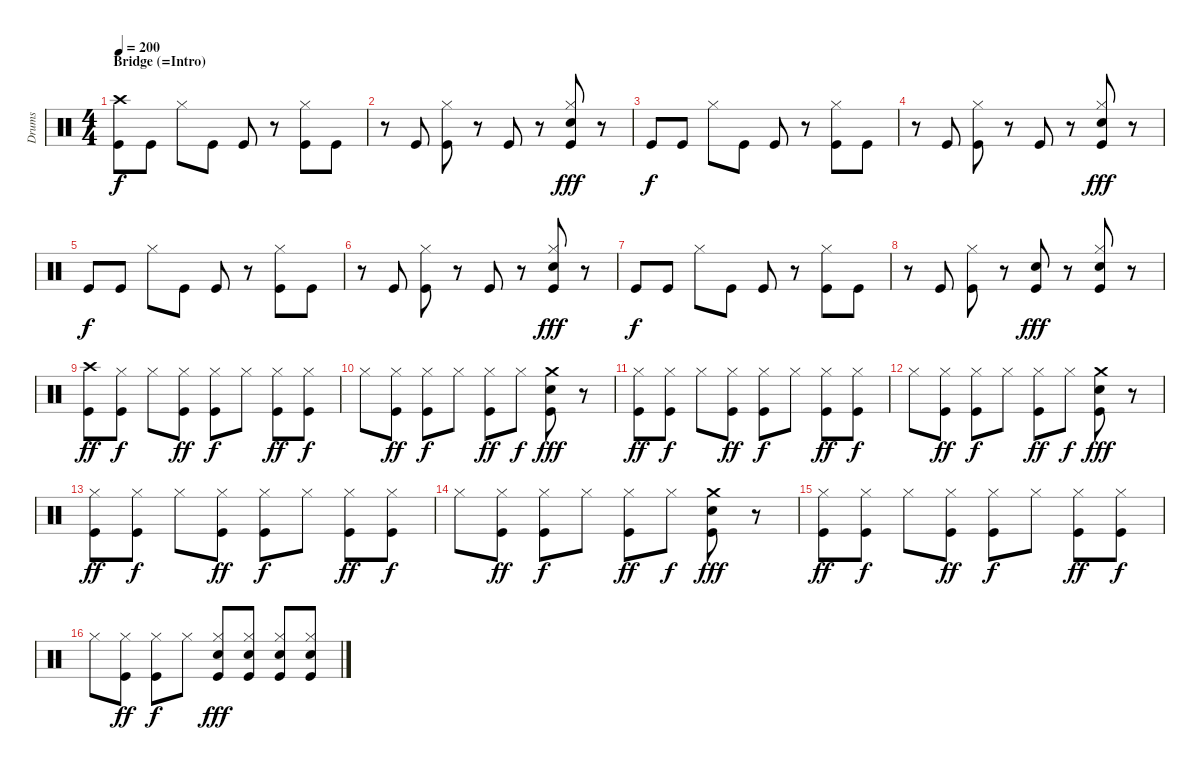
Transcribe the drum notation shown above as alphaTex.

\track ("Drums" "Drums") {instrument percussion}
\staff {score}
\articulation defaults
\ts (4 4)
\section ("" "Bridge (=Intro)")
\tempo 200
\clef neutral
\ks c
("Crash high (hit)" "Kick (hit)").8{dy f} "Kick (hit)".8 "Hi-Hat (closed)".8 "Kick (hit)".8 "Kick (hit)".8 r.8 ("Hi-Hat (closed)" "Kick (hit)").8 "Kick (hit)".8 |
r.8 "Kick (hit)".8 ("Hi-Hat (closed)" "Kick (hit)").8 r.8 "Kick (hit)".8 r.8 ("Hi-Hat (closed)" "Hand Clap (hit)" "Kick (hit)").8{dy fff} r.8 |
"Kick (hit)".8{dy f} "Kick (hit)".8 "Hi-Hat (closed)".8 "Kick (hit)".8 "Kick (hit)".8 r.8 ("Hi-Hat (closed)" "Kick (hit)").8 "Kick (hit)".8 |
r.8 "Kick (hit)".8 ("Hi-Hat (closed)" "Kick (hit)").8 r.8 "Kick (hit)".8 r.8 ("Hi-Hat (closed)" "Hand Clap (hit)" "Kick (hit)").8{dy fff} r.8 |
"Kick (hit)".8{dy f} "Kick (hit)".8 "Hi-Hat (closed)".8 "Kick (hit)".8 "Kick (hit)".8 r.8 ("Hi-Hat (closed)" "Kick (hit)").8 "Kick (hit)".8 |
r.8 "Kick (hit)".8 ("Hi-Hat (closed)" "Kick (hit)").8 r.8 "Kick (hit)".8 r.8 ("Hi-Hat (closed)" "Hand Clap (hit)" "Kick (hit)").8{dy fff} r.8 |
"Kick (hit)".8{dy f} "Kick (hit)".8 "Hi-Hat (closed)".8 "Kick (hit)".8 "Kick (hit)".8 r.8 ("Hi-Hat (closed)" "Kick (hit)").8 "Kick (hit)".8 |
r.8 "Kick (hit)".8 ("Hi-Hat (closed)" "Kick (hit)").8 r.8 ("Hand Clap (hit)" "Kick (hit)").8{dy fff} r.8 ("Hi-Hat (closed)" "Hand Clap (hit)" "Kick (hit)").8 r.8 |
("Crash high (hit)" "Kick (hit)").8{dy ff} ("Hi-Hat (closed)" "Kick (hit)").8{dy f} "Hi-Hat (closed)".8 ("Hi-Hat (closed)" "Kick (hit)").8{dy ff} ("Hi-Hat (closed)" "Kick (hit)").8{dy f} "Hi-Hat (closed)".8 ("Hi-Hat (closed)" "Kick (hit)").8{dy ff} ("Hi-Hat (closed)" "Kick (hit)").8{dy f} |
"Hi-Hat (closed)".8 ("Hi-Hat (closed)" "Kick (hit)").8{dy ff} ("Hi-Hat (closed)" "Kick (hit)").8{dy f} "Hi-Hat (closed)".8 ("Hi-Hat (closed)" "Kick (hit)").8{dy ff} "Hi-Hat (closed)".8{dy f} ("Crash medium (hit)" "Hand Clap (hit)" "Kick (hit)").8{dy fff} r.8 |
("Hi-Hat (closed)" "Kick (hit)").8{dy ff} ("Hi-Hat (closed)" "Kick (hit)").8{dy f} "Hi-Hat (closed)".8 ("Hi-Hat (closed)" "Kick (hit)").8{dy ff} ("Hi-Hat (closed)" "Kick (hit)").8{dy f} "Hi-Hat (closed)".8 ("Hi-Hat (closed)" "Kick (hit)").8{dy ff} ("Hi-Hat (closed)" "Kick (hit)").8{dy f} |
"Hi-Hat (closed)".8 ("Hi-Hat (closed)" "Kick (hit)").8{dy ff} ("Hi-Hat (closed)" "Kick (hit)").8{dy f} "Hi-Hat (closed)".8 ("Hi-Hat (closed)" "Kick (hit)").8{dy ff} "Hi-Hat (closed)".8{dy f} ("Crash medium (hit)" "Hand Clap (hit)" "Kick (hit)").8{dy fff} r.8 |
("Hi-Hat (closed)" "Kick (hit)").8{dy ff} ("Hi-Hat (closed)" "Kick (hit)").8{dy f} "Hi-Hat (closed)".8 ("Hi-Hat (closed)" "Kick (hit)").8{dy ff} ("Hi-Hat (closed)" "Kick (hit)").8{dy f} "Hi-Hat (closed)".8 ("Hi-Hat (closed)" "Kick (hit)").8{dy ff} ("Hi-Hat (closed)" "Kick (hit)").8{dy f} |
"Hi-Hat (closed)".8 ("Hi-Hat (closed)" "Kick (hit)").8{dy ff} ("Hi-Hat (closed)" "Kick (hit)").8{dy f} "Hi-Hat (closed)".8 ("Hi-Hat (closed)" "Kick (hit)").8{dy ff} "Hi-Hat (closed)".8{dy f} ("Crash medium (hit)" "Hand Clap (hit)" "Kick (hit)").8{dy fff} r.8 |
("Hi-Hat (closed)" "Kick (hit)").8{dy ff} ("Hi-Hat (closed)" "Kick (hit)").8{dy f} "Hi-Hat (closed)".8 ("Hi-Hat (closed)" "Kick (hit)").8{dy ff} ("Hi-Hat (closed)" "Kick (hit)").8{dy f} "Hi-Hat (closed)".8 ("Hi-Hat (closed)" "Kick (hit)").8{dy ff} ("Hi-Hat (closed)" "Kick (hit)").8{dy f} |
"Hi-Hat (closed)".8 ("Hi-Hat (closed)" "Kick (hit)").8{dy ff} ("Hi-Hat (closed)" "Kick (hit)").8{dy f} "Hi-Hat (closed)".8 ("Hi-Hat (closed)" "Hand Clap (hit)" "Kick (hit)").8{dy fff} ("Hi-Hat (closed)" "Hand Clap (hit)" "Kick (hit)").8 ("Hi-Hat (closed)" "Hand Clap (hit)" "Kick (hit)").8 ("Hi-Hat (closed)" "Hand Clap (hit)" "Kick (hit)").8
